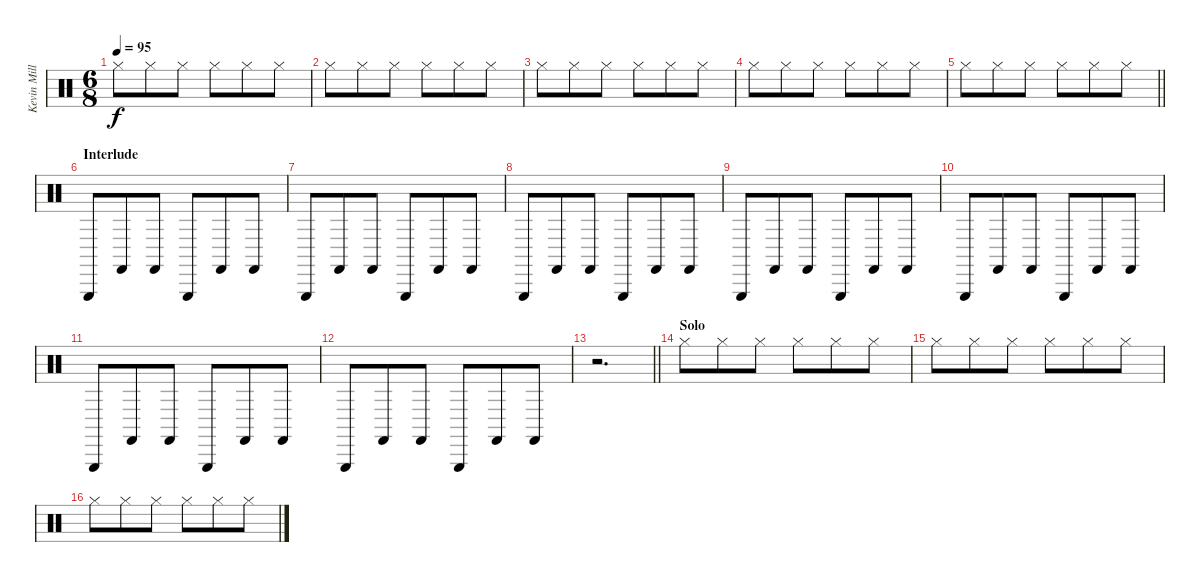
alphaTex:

\track ("Kevin Miller (Drums)" "Kevin Mill") {instrument percussion}
\staff {score}
\articulation defaults
\ts (6 8)
\tempo 95
\clef neutral
\ks c "Hi-Hat (closed)".8{dy f} "Hi-Hat (closed)".8 "Hi-Hat (closed)".8 "Hi-Hat (closed)".8 "Hi-Hat (closed)".8 "Hi-Hat (closed)".8
|
"Hi-Hat (closed)".8 "Hi-Hat (closed)".8 "Hi-Hat (closed)".8 "Hi-Hat (closed)".8 "Hi-Hat (closed)".8 "Hi-Hat (closed)".8 |
"Hi-Hat (closed)".8 "Hi-Hat (closed)".8 "Hi-Hat (closed)".8 "Hi-Hat (closed)".8 "Hi-Hat (closed)".8 "Hi-Hat (closed)".8 |
"Hi-Hat (closed)".8 "Hi-Hat (closed)".8 "Hi-Hat (closed)".8 "Hi-Hat (closed)".8 "Hi-Hat (closed)".8 "Hi-Hat (closed)".8 |
\barLineRight lightlight "Hi-Hat (closed)".8 "Hi-Hat (closed)".8 "Hi-Hat (closed)".8 "Hi-Hat (closed)".8 "Hi-Hat (closed)".8 "Hi-Hat (closed)".8
|
\section ("" "Interlude")
"Triangle (hit)".8 "Castanets (hit)".8 "Castanets (hit)".8 "Triangle (hit)".8 "Castanets (hit)".8 "Castanets (hit)".8 |
"Triangle (hit)".8 "Castanets (hit)".8 "Castanets (hit)".8 "Triangle (hit)".8 "Castanets (hit)".8 "Castanets (hit)".8 |
"Triangle (hit)".8 "Castanets (hit)".8 "Castanets (hit)".8 "Triangle (hit)".8 "Castanets (hit)".8 "Castanets (hit)".8 |
"Triangle (hit)".8 "Castanets (hit)".8 "Castanets (hit)".8 "Triangle (hit)".8 "Castanets (hit)".8 "Castanets (hit)".8 |
"Triangle (hit)".8 "Castanets (hit)".8 "Castanets (hit)".8 "Triangle (hit)".8 "Castanets (hit)".8 "Castanets (hit)".8 |
"Triangle (hit)".8 "Castanets (hit)".8 "Castanets (hit)".8 "Triangle (hit)".8 "Castanets (hit)".8 "Castanets (hit)".8 |
"Triangle (hit)".8 "Castanets (hit)".8 "Castanets (hit)".8 "Triangle (hit)".8 "Castanets (hit)".8 "Castanets (hit)".8 |
\barLineRight lightlight
r.2{d} |
\section ("" "Solo")
"Hi-Hat (closed)".8 "Hi-Hat (closed)".8 "Hi-Hat (closed)".8 "Hi-Hat (closed)".8 "Hi-Hat (closed)".8 "Hi-Hat (closed)".8 |
"Hi-Hat (closed)".8 "Hi-Hat (closed)".8 "Hi-Hat (closed)".8 "Hi-Hat (closed)".8 "Hi-Hat (closed)".8 "Hi-Hat (closed)".8 |
"Hi-Hat (closed)".8 "Hi-Hat (closed)".8 "Hi-Hat (closed)".8 "Hi-Hat (closed)".8 "Hi-Hat (closed)".8 "Hi-Hat (closed)".8
